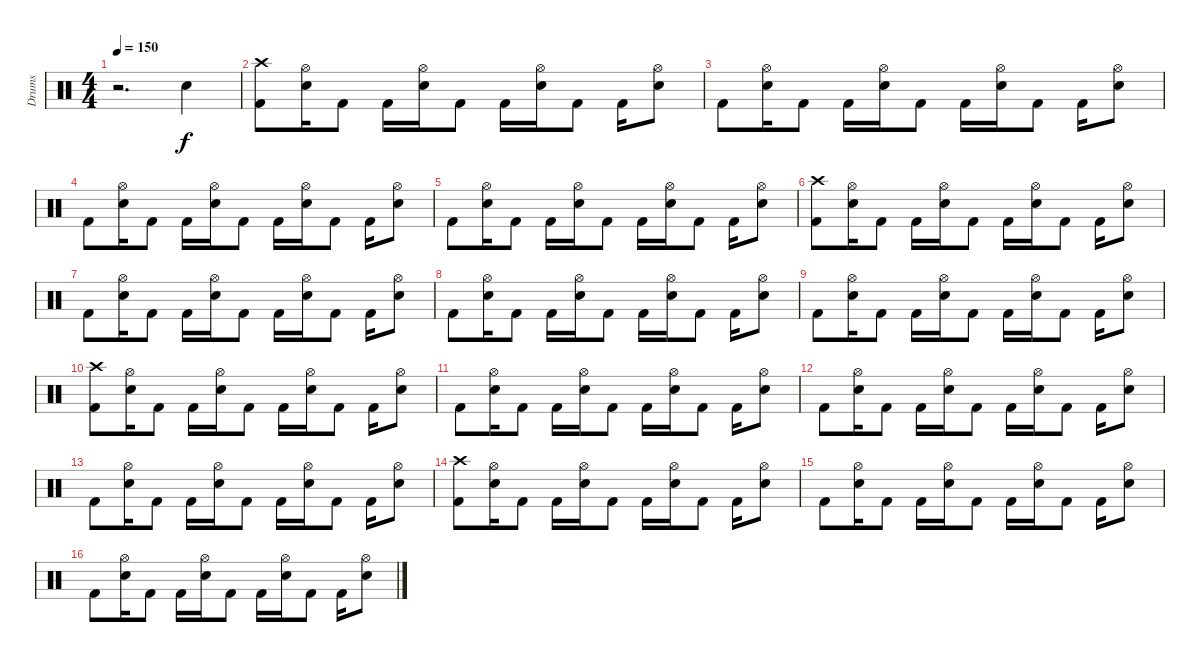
\track ("Drums" "Drums") {instrument percussion}
\staff {score}
\articulation defaults
\ts (4 4)
\tempo 150
\clef neutral
\ks c
r.2{d dy f} "Snare (hit) 2".4 |
("Crash high (hit)" "Kick (hit) 2").8 ("Hi-Hat (open)" "Snare (hit) 2").16 "Kick (hit) 2".8 "Kick (hit) 2".16 ("Hi-Hat (open)" "Snare (hit) 2").16 "Kick (hit) 2".8 "Kick (hit) 2".16 ("Hi-Hat (open)" "Snare (hit) 2").16 "Kick (hit) 2".8 "Kick (hit) 2".16 ("Hi-Hat (open)" "Snare (hit) 2").8 |
"Kick (hit) 2".8 ("Hi-Hat (open)" "Snare (hit) 2").16 "Kick (hit) 2".8 "Kick (hit) 2".16 ("Hi-Hat (open)" "Snare (hit) 2").16 "Kick (hit) 2".8 "Kick (hit) 2".16 ("Hi-Hat (open)" "Snare (hit) 2").16 "Kick (hit) 2".8 "Kick (hit) 2".16 ("Hi-Hat (open)" "Snare (hit) 2").8 |
"Kick (hit) 2".8 ("Hi-Hat (open)" "Snare (hit) 2").16 "Kick (hit) 2".8 "Kick (hit) 2".16 ("Hi-Hat (open)" "Snare (hit) 2").16 "Kick (hit) 2".8 "Kick (hit) 2".16 ("Hi-Hat (open)" "Snare (hit) 2").16 "Kick (hit) 2".8 "Kick (hit) 2".16 ("Hi-Hat (open)" "Snare (hit) 2").8 |
"Kick (hit) 2".8 ("Hi-Hat (open)" "Snare (hit) 2").16 "Kick (hit) 2".8 "Kick (hit) 2".16 ("Hi-Hat (open)" "Snare (hit) 2").16 "Kick (hit) 2".8 "Kick (hit) 2".16 ("Hi-Hat (open)" "Snare (hit) 2").16 "Kick (hit) 2".8 "Kick (hit) 2".16 ("Hi-Hat (open)" "Snare (hit) 2").8 |
("Crash high (hit)" "Kick (hit) 2").8 ("Hi-Hat (open)" "Snare (hit) 2").16 "Kick (hit) 2".8 "Kick (hit) 2".16 ("Hi-Hat (open)" "Snare (hit) 2").16 "Kick (hit) 2".8 "Kick (hit) 2".16 ("Hi-Hat (open)" "Snare (hit) 2").16 "Kick (hit) 2".8 "Kick (hit) 2".16 ("Hi-Hat (open)" "Snare (hit) 2").8 |
"Kick (hit) 2".8 ("Hi-Hat (open)" "Snare (hit) 2").16 "Kick (hit) 2".8 "Kick (hit) 2".16 ("Hi-Hat (open)" "Snare (hit) 2").16 "Kick (hit) 2".8 "Kick (hit) 2".16 ("Hi-Hat (open)" "Snare (hit) 2").16 "Kick (hit) 2".8 "Kick (hit) 2".16 ("Hi-Hat (open)" "Snare (hit) 2").8 |
"Kick (hit) 2".8 ("Hi-Hat (open)" "Snare (hit) 2").16 "Kick (hit) 2".8 "Kick (hit) 2".16 ("Hi-Hat (open)" "Snare (hit) 2").16 "Kick (hit) 2".8 "Kick (hit) 2".16 ("Hi-Hat (open)" "Snare (hit) 2").16 "Kick (hit) 2".8 "Kick (hit) 2".16 ("Hi-Hat (open)" "Snare (hit) 2").8 |
"Kick (hit) 2".8 ("Hi-Hat (open)" "Snare (hit) 2").16 "Kick (hit) 2".8 "Kick (hit) 2".16 ("Hi-Hat (open)" "Snare (hit) 2").16 "Kick (hit) 2".8 "Kick (hit) 2".16 ("Hi-Hat (open)" "Snare (hit) 2").16 "Kick (hit) 2".8 "Kick (hit) 2".16 ("Hi-Hat (open)" "Snare (hit) 2").8 |
("Crash high (hit)" "Kick (hit) 2").8 ("Hi-Hat (open)" "Snare (hit) 2").16 "Kick (hit) 2".8 "Kick (hit) 2".16 ("Hi-Hat (open)" "Snare (hit) 2").16 "Kick (hit) 2".8 "Kick (hit) 2".16 ("Hi-Hat (open)" "Snare (hit) 2").16 "Kick (hit) 2".8 "Kick (hit) 2".16 ("Hi-Hat (open)" "Snare (hit) 2").8 |
"Kick (hit) 2".8 ("Hi-Hat (open)" "Snare (hit) 2").16 "Kick (hit) 2".8 "Kick (hit) 2".16 ("Hi-Hat (open)" "Snare (hit) 2").16 "Kick (hit) 2".8 "Kick (hit) 2".16 ("Hi-Hat (open)" "Snare (hit) 2").16 "Kick (hit) 2".8 "Kick (hit) 2".16 ("Hi-Hat (open)" "Snare (hit) 2").8 |
"Kick (hit) 2".8 ("Hi-Hat (open)" "Snare (hit) 2").16 "Kick (hit) 2".8 "Kick (hit) 2".16 ("Hi-Hat (open)" "Snare (hit) 2").16 "Kick (hit) 2".8 "Kick (hit) 2".16 ("Hi-Hat (open)" "Snare (hit) 2").16 "Kick (hit) 2".8 "Kick (hit) 2".16 ("Hi-Hat (open)" "Snare (hit) 2").8 |
"Kick (hit) 2".8 ("Hi-Hat (open)" "Snare (hit) 2").16 "Kick (hit) 2".8 "Kick (hit) 2".16 ("Hi-Hat (open)" "Snare (hit) 2").16 "Kick (hit) 2".8 "Kick (hit) 2".16 ("Hi-Hat (open)" "Snare (hit) 2").16 "Kick (hit) 2".8 "Kick (hit) 2".16 ("Hi-Hat (open)" "Snare (hit) 2").8 |
("Crash high (hit)" "Kick (hit) 2").8 ("Hi-Hat (open)" "Snare (hit) 2").16 "Kick (hit) 2".8 "Kick (hit) 2".16 ("Hi-Hat (open)" "Snare (hit) 2").16 "Kick (hit) 2".8 "Kick (hit) 2".16 ("Hi-Hat (open)" "Snare (hit) 2").16 "Kick (hit) 2".8 "Kick (hit) 2".16 ("Hi-Hat (open)" "Snare (hit) 2").8 |
"Kick (hit) 2".8 ("Hi-Hat (open)" "Snare (hit) 2").16 "Kick (hit) 2".8 "Kick (hit) 2".16 ("Hi-Hat (open)" "Snare (hit) 2").16 "Kick (hit) 2".8 "Kick (hit) 2".16 ("Hi-Hat (open)" "Snare (hit) 2").16 "Kick (hit) 2".8 "Kick (hit) 2".16 ("Hi-Hat (open)" "Snare (hit) 2").8 |
"Kick (hit) 2".8 ("Hi-Hat (open)" "Snare (hit) 2").16 "Kick (hit) 2".8 "Kick (hit) 2".16 ("Hi-Hat (open)" "Snare (hit) 2").16 "Kick (hit) 2".8 "Kick (hit) 2".16 ("Hi-Hat (open)" "Snare (hit) 2").16 "Kick (hit) 2".8 "Kick (hit) 2".16 ("Hi-Hat (open)" "Snare (hit) 2").8
